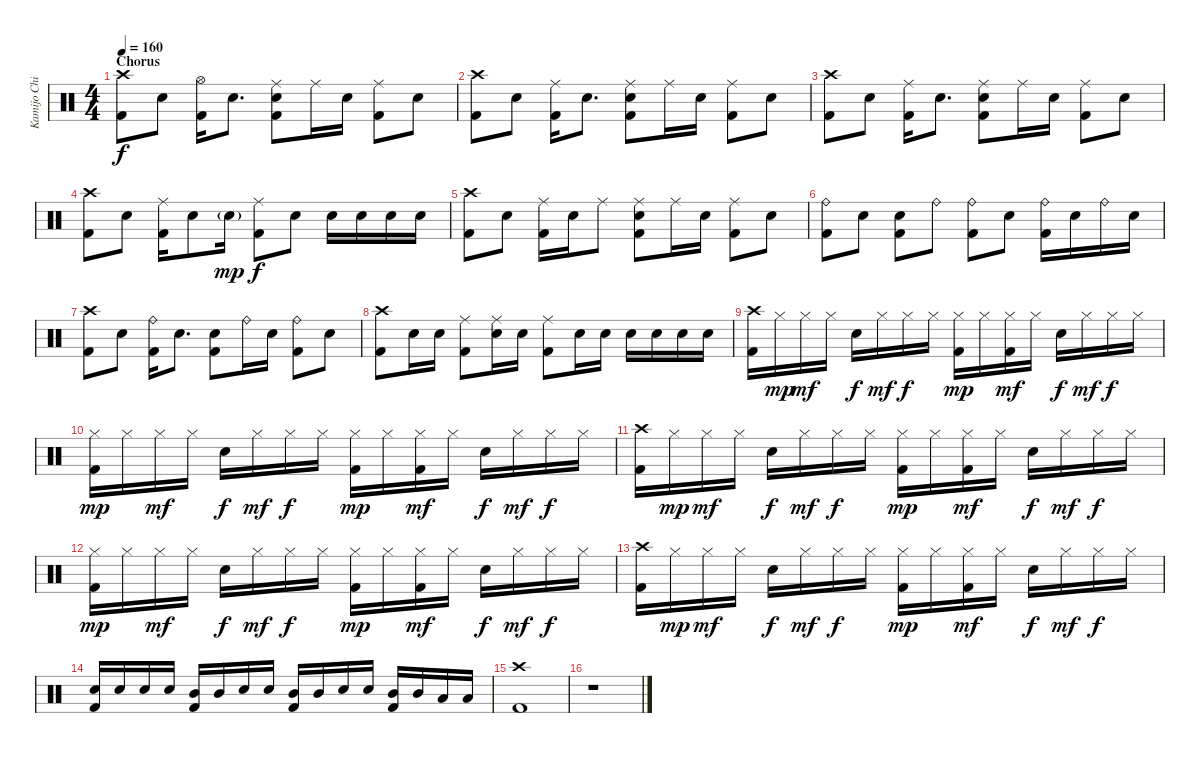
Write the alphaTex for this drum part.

\track ("Kamijo Chihiro" "Kamijo Chi") {instrument percussion}
\staff {score}
\articulation defaults
\ts (4 4)
\section ("" "Chorus")
\tempo 160
\clef neutral
\ks c
("Crash high (hit)" "Kick (hit) 2").8{dy f} "Snare (hit) 2".8 ("Hi-Hat (open)" "Kick (hit) 2").16 "Snare (hit) 2".8{d} ("Ride (middle)" "Snare (hit) 2" "Kick (hit) 2").8 "Ride (middle)".16 "Snare (hit) 2".16 ("Ride (middle)" "Kick (hit) 2").8 "Snare (hit) 2".8 |
("Crash high (hit)" "Kick (hit) 2").8 "Snare (hit) 2".8 ("Ride (middle)" "Kick (hit) 2").16 "Snare (hit) 2".8{d} ("Ride (middle)" "Snare (hit) 2" "Kick (hit) 2").8 "Ride (middle)".16 "Snare (hit) 2".16 ("Ride (middle)" "Kick (hit) 2").8 "Snare (hit) 2".8 |
("Crash high (hit)" "Kick (hit) 2").8 "Snare (hit) 2".8 ("Ride (middle)" "Kick (hit) 2").16 "Snare (hit) 2".8{d} ("Ride (middle)" "Snare (hit) 2" "Kick (hit) 2").8 "Ride (middle)".16 "Snare (hit) 2".16 ("Ride (middle)" "Kick (hit) 2").8 "Snare (hit) 2".8 |
("Crash high (hit)" "Kick (hit) 2").8 "Snare (hit) 2".8 ("Ride (middle)" "Kick (hit) 2").16 "Snare (hit) 2".8 "Snare (hit) 2"{g}.16{dy mp} ("Ride (middle)" "Kick (hit) 2").8{dy f} "Snare (hit) 2".8 "Snare (hit) 2".16 "Snare (hit) 2".16 "Snare (hit) 2".16 "Snare (hit) 2".16 |
("Crash high (hit)" "Kick (hit) 2").8 "Snare (hit) 2".8 ("Ride (middle)" "Kick (hit) 2").16 "Snare (hit) 2".16 "Ride (middle)".8 ("Ride (middle)" "Snare (hit) 2" "Kick (hit) 2").8 "Ride (middle)".16 "Snare (hit) 2".16 ("Ride (middle)" "Kick (hit) 2").8 "Snare (hit) 2".8 |
("Ride (bell)" "Kick (hit) 2").8 "Snare (hit) 2".8 ("Snare (hit) 2" "Kick (hit) 2").8 "Ride (bell)".8 ("Ride (bell)" "Kick (hit) 2").8 "Snare (hit) 2".8 ("Ride (bell)" "Kick (hit) 2").16 "Snare (hit) 2".16 "Ride (bell)".16 "Snare (hit) 2".16 |
("Crash high (hit)" "Kick (hit) 2").8 "Snare (hit) 2".8 ("Ride (bell)" "Kick (hit) 2").16 "Snare (hit) 2".8{d} ("Snare (hit) 2" "Kick (hit) 2").8 "Ride (bell)".16 "Snare (hit) 2".16 ("Ride (bell)" "Kick (hit) 2").8 "Snare (hit) 2".8 |
("Crash high (hit)" "Kick (hit) 2").8 "Snare (hit) 2".16 "Snare (hit) 2".16 ("Ride (middle)" "Kick (hit) 2").8 ("Ride (middle)" "Snare (hit) 2").16 "Snare (hit) 2".16 ("Ride (middle)" "Kick (hit) 2").8 "Snare (hit) 2".16 "Snare (hit) 2".16 "Snare (hit) 2".16 "Snare (hit) 2".16 "Snare (hit) 2".16 "Snare (hit) 2".16 |
("Crash high (hit)" "Kick (hit) 2").16 "Hi-Hat (closed)".16{dy mp} "Hi-Hat (closed)".16{dy mf} "Hi-Hat (closed)".16 "Snare (hit) 2".16{dy f} "Hi-Hat (closed)".16{dy mf} "Hi-Hat (closed)".16{dy f} "Hi-Hat (closed)".16 ("Hi-Hat (closed)" "Kick (hit) 2").16{dy mp} "Hi-Hat (closed)".16 ("Hi-Hat (closed)" "Kick (hit) 2").16{dy mf} "Hi-Hat (closed)".16 "Snare (hit) 2".16{dy f} "Hi-Hat (closed)".16{dy mf} "Hi-Hat (closed)".16{dy f} "Hi-Hat (closed)".16 |
("Hi-Hat (closed)" "Kick (hit) 2").16{dy mp} "Hi-Hat (closed)".16 "Hi-Hat (closed)".16{dy mf} "Hi-Hat (closed)".16 "Snare (hit) 2".16{dy f} "Hi-Hat (closed)".16{dy mf} "Hi-Hat (closed)".16{dy f} "Hi-Hat (closed)".16 ("Hi-Hat (closed)" "Kick (hit) 2").16{dy mp} "Hi-Hat (closed)".16 ("Hi-Hat (closed)" "Kick (hit) 2").16{dy mf} "Hi-Hat (closed)".16 "Snare (hit) 2".16{dy f} "Hi-Hat (closed)".16{dy mf} "Hi-Hat (closed)".16{dy f} "Hi-Hat (closed)".16 |
("Crash high (hit)" "Kick (hit) 2").16 "Hi-Hat (closed)".16{dy mp} "Hi-Hat (closed)".16{dy mf} "Hi-Hat (closed)".16 "Snare (hit) 2".16{dy f} "Hi-Hat (closed)".16{dy mf} "Hi-Hat (closed)".16{dy f} "Hi-Hat (closed)".16 ("Hi-Hat (closed)" "Kick (hit) 2").16{dy mp} "Hi-Hat (closed)".16 ("Hi-Hat (closed)" "Kick (hit) 2").16{dy mf} "Hi-Hat (closed)".16 "Snare (hit) 2".16{dy f} "Hi-Hat (closed)".16{dy mf} "Hi-Hat (closed)".16{dy f} "Hi-Hat (closed)".16 |
("Hi-Hat (closed)" "Kick (hit) 2").16{dy mp} "Hi-Hat (closed)".16 "Hi-Hat (closed)".16{dy mf} "Hi-Hat (closed)".16 "Snare (hit) 2".16{dy f} "Hi-Hat (closed)".16{dy mf} "Hi-Hat (closed)".16{dy f} "Hi-Hat (closed)".16 ("Hi-Hat (closed)" "Kick (hit) 2").16{dy mp} "Hi-Hat (closed)".16 ("Hi-Hat (closed)" "Kick (hit) 2").16{dy mf} "Hi-Hat (closed)".16 "Snare (hit) 2".16{dy f} "Hi-Hat (closed)".16{dy mf} "Hi-Hat (closed)".16{dy f} "Hi-Hat (closed)".16 |
("Crash high (hit)" "Kick (hit) 2").16 "Hi-Hat (closed)".16{dy mp} "Hi-Hat (closed)".16{dy mf} "Hi-Hat (closed)".16 "Snare (hit) 2".16{dy f} "Hi-Hat (closed)".16{dy mf} "Hi-Hat (closed)".16{dy f} "Hi-Hat (closed)".16 ("Hi-Hat (closed)" "Kick (hit) 2").16{dy mp} "Hi-Hat (closed)".16 ("Hi-Hat (closed)" "Kick (hit) 2").16{dy mf} "Hi-Hat (closed)".16 "Snare (hit) 2".16{dy f} "Hi-Hat (closed)".16{dy mf} "Hi-Hat (closed)".16{dy f} "Hi-Hat (closed)".16 |
("Snare (hit) 2" "Kick (hit) 2").16 "Snare (hit) 2".16 "Snare (hit) 2".16 "Snare (hit) 2".16 ("Mid Tom (hit)" "Kick (hit) 2").16 "Mid Tom (hit)".16 "Snare (hit) 2".16 "Snare (hit) 2".16 ("Mid Tom (hit)" "Kick (hit) 2").16 "Mid Tom (hit)".16 "Snare (hit) 2".16 "Snare (hit) 2".16 ("Mid Tom (hit)" "Kick (hit) 2").16 "Mid Tom (hit)".16 "Low Tom (hit)".16 "Low Tom (hit)".16 |
("Crash high (hit)" "Kick (hit) 2").1 |
r.1
